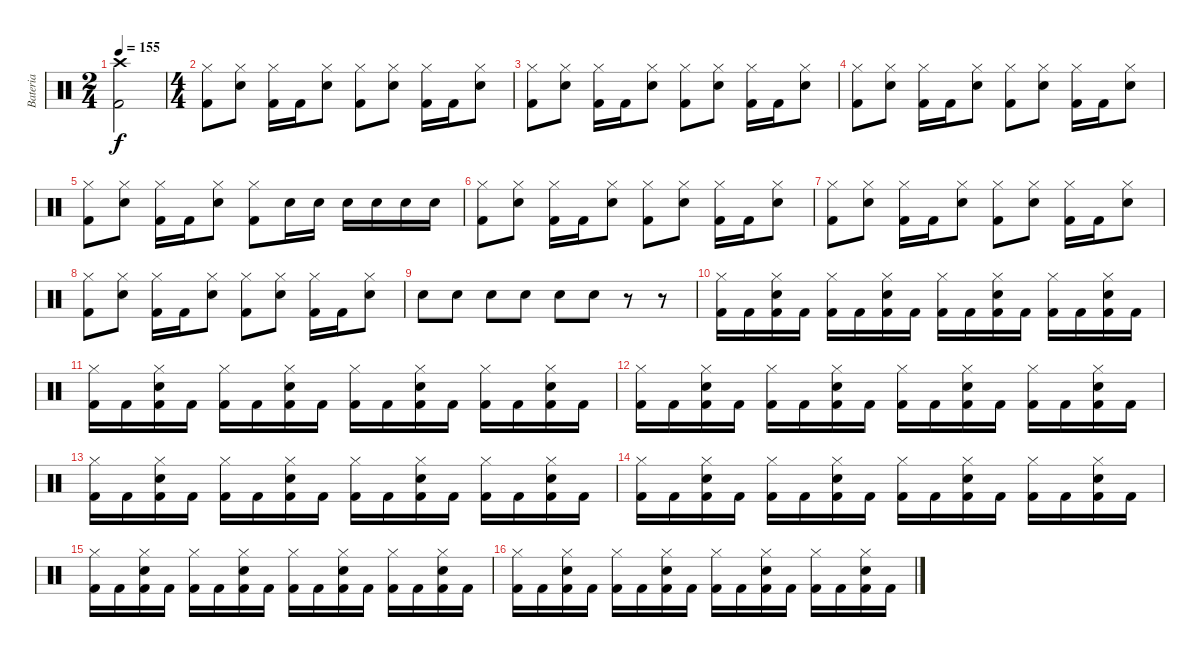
\track ("Bateria" "Bateria") {instrument percussion}
\staff {score}
\articulation defaults
\ts (2 4)
\tempo 155
\clef neutral
\ks c
("Kick (hit) 2" "Crash high (hit)").2{dy f} |
\ts (4 4)
("Kick (hit) 2" "Hi-Hat (closed)").8 ("Electric Snare (hit)" "Hi-Hat (closed)").8 ("Kick (hit) 2" "Hi-Hat (closed)").16 "Kick (hit) 2".16 ("Electric Snare (hit)" "Hi-Hat (closed)").8 ("Kick (hit) 2" "Hi-Hat (closed)").8 ("Electric Snare (hit)" "Hi-Hat (closed)").8 ("Kick (hit) 2" "Hi-Hat (closed)").16 "Kick (hit) 2".16 ("Electric Snare (hit)" "Hi-Hat (closed)").8 |
("Kick (hit) 2" "Hi-Hat (closed)").8 ("Electric Snare (hit)" "Hi-Hat (closed)").8 ("Kick (hit) 2" "Hi-Hat (closed)").16 "Kick (hit) 2".16 ("Electric Snare (hit)" "Hi-Hat (closed)").8 ("Kick (hit) 2" "Hi-Hat (closed)").8 ("Electric Snare (hit)" "Hi-Hat (closed)").8 ("Kick (hit) 2" "Hi-Hat (closed)").16 "Kick (hit) 2".16 ("Electric Snare (hit)" "Hi-Hat (closed)").8 |
("Kick (hit) 2" "Hi-Hat (closed)").8 ("Electric Snare (hit)" "Hi-Hat (closed)").8 ("Kick (hit) 2" "Hi-Hat (closed)").16 "Kick (hit) 2".16 ("Electric Snare (hit)" "Hi-Hat (closed)").8 ("Kick (hit) 2" "Hi-Hat (closed)").8 ("Electric Snare (hit)" "Hi-Hat (closed)").8 ("Kick (hit) 2" "Hi-Hat (closed)").16 "Kick (hit) 2".16 ("Electric Snare (hit)" "Hi-Hat (closed)").8 |
("Kick (hit) 2" "Hi-Hat (closed)").8 ("Electric Snare (hit)" "Hi-Hat (closed)").8 ("Kick (hit) 2" "Hi-Hat (closed)").16 "Kick (hit) 2".16 ("Electric Snare (hit)" "Hi-Hat (closed)").8 ("Kick (hit) 2" "Hi-Hat (closed)").8 "Electric Snare (hit)".16 "Electric Snare (hit)".16 "Electric Snare (hit)".16 "Electric Snare (hit)".16 "Electric Snare (hit)".16 "Electric Snare (hit)".16 |
("Kick (hit) 2" "Hi-Hat (closed)").8 ("Electric Snare (hit)" "Hi-Hat (closed)").8 ("Kick (hit) 2" "Hi-Hat (closed)").16 "Kick (hit) 2".16 ("Electric Snare (hit)" "Hi-Hat (closed)").8 ("Kick (hit) 2" "Hi-Hat (closed)").8 ("Electric Snare (hit)" "Hi-Hat (closed)").8 ("Kick (hit) 2" "Hi-Hat (closed)").16 "Kick (hit) 2".16 ("Electric Snare (hit)" "Hi-Hat (closed)").8 |
("Kick (hit) 2" "Hi-Hat (closed)").8 ("Electric Snare (hit)" "Hi-Hat (closed)").8 ("Kick (hit) 2" "Hi-Hat (closed)").16 "Kick (hit) 2".16 ("Electric Snare (hit)" "Hi-Hat (closed)").8 ("Kick (hit) 2" "Hi-Hat (closed)").8 ("Electric Snare (hit)" "Hi-Hat (closed)").8 ("Kick (hit) 2" "Hi-Hat (closed)").16 "Kick (hit) 2".16 ("Electric Snare (hit)" "Hi-Hat (closed)").8 |
("Kick (hit) 2" "Hi-Hat (closed)").8 ("Electric Snare (hit)" "Hi-Hat (closed)").8 ("Kick (hit) 2" "Hi-Hat (closed)").16 "Kick (hit) 2".16 ("Electric Snare (hit)" "Hi-Hat (closed)").8 ("Kick (hit) 2" "Hi-Hat (closed)").8 ("Electric Snare (hit)" "Hi-Hat (closed)").8 ("Kick (hit) 2" "Hi-Hat (closed)").16 "Kick (hit) 2".16 ("Electric Snare (hit)" "Hi-Hat (closed)").8 |
"Electric Snare (hit)".8 "Electric Snare (hit)".8 "Electric Snare (hit)".8 "Electric Snare (hit)".8 "Electric Snare (hit)".8 "Electric Snare (hit)".8 r.8 r.8 |
("Kick (hit) 2" "Hi-Hat (closed)").16 "Kick (hit) 2".16 ("Kick (hit) 2" "Hi-Hat (closed)" "Electric Snare (hit)").16 "Kick (hit) 2".16 ("Kick (hit) 2" "Hi-Hat (closed)").16 "Kick (hit) 2".16 ("Kick (hit) 2" "Hi-Hat (closed)" "Electric Snare (hit)").16 "Kick (hit) 2".16 ("Kick (hit) 2" "Hi-Hat (closed)").16 "Kick (hit) 2".16 ("Kick (hit) 2" "Hi-Hat (closed)" "Electric Snare (hit)").16 "Kick (hit) 2".16 ("Kick (hit) 2" "Hi-Hat (closed)").16 "Kick (hit) 2".16 ("Kick (hit) 2" "Hi-Hat (closed)" "Electric Snare (hit)").16 "Kick (hit) 2".16 |
("Kick (hit) 2" "Hi-Hat (closed)").16 "Kick (hit) 2".16 ("Kick (hit) 2" "Hi-Hat (closed)" "Electric Snare (hit)").16 "Kick (hit) 2".16 ("Kick (hit) 2" "Hi-Hat (closed)").16 "Kick (hit) 2".16 ("Kick (hit) 2" "Hi-Hat (closed)" "Electric Snare (hit)").16 "Kick (hit) 2".16 ("Kick (hit) 2" "Hi-Hat (closed)").16 "Kick (hit) 2".16 ("Kick (hit) 2" "Hi-Hat (closed)" "Electric Snare (hit)").16 "Kick (hit) 2".16 ("Kick (hit) 2" "Hi-Hat (closed)").16 "Kick (hit) 2".16 ("Kick (hit) 2" "Hi-Hat (closed)" "Electric Snare (hit)").16 "Kick (hit) 2".16 |
("Kick (hit) 2" "Hi-Hat (closed)").16 "Kick (hit) 2".16 ("Kick (hit) 2" "Hi-Hat (closed)" "Electric Snare (hit)").16 "Kick (hit) 2".16 ("Kick (hit) 2" "Hi-Hat (closed)").16 "Kick (hit) 2".16 ("Kick (hit) 2" "Hi-Hat (closed)" "Electric Snare (hit)").16 "Kick (hit) 2".16 ("Kick (hit) 2" "Hi-Hat (closed)").16 "Kick (hit) 2".16 ("Kick (hit) 2" "Hi-Hat (closed)" "Electric Snare (hit)").16 "Kick (hit) 2".16 ("Kick (hit) 2" "Hi-Hat (closed)").16 "Kick (hit) 2".16 ("Kick (hit) 2" "Hi-Hat (closed)" "Electric Snare (hit)").16 "Kick (hit) 2".16 |
("Kick (hit) 2" "Hi-Hat (closed)").16 "Kick (hit) 2".16 ("Kick (hit) 2" "Hi-Hat (closed)" "Electric Snare (hit)").16 "Kick (hit) 2".16 ("Kick (hit) 2" "Hi-Hat (closed)").16 "Kick (hit) 2".16 ("Kick (hit) 2" "Hi-Hat (closed)" "Electric Snare (hit)").16 "Kick (hit) 2".16 ("Kick (hit) 2" "Hi-Hat (closed)").16 "Kick (hit) 2".16 ("Kick (hit) 2" "Hi-Hat (closed)" "Electric Snare (hit)").16 "Kick (hit) 2".16 ("Kick (hit) 2" "Hi-Hat (closed)").16 "Kick (hit) 2".16 ("Kick (hit) 2" "Hi-Hat (closed)" "Electric Snare (hit)").16 "Kick (hit) 2".16 |
("Kick (hit) 2" "Hi-Hat (closed)").16 "Kick (hit) 2".16 ("Kick (hit) 2" "Hi-Hat (closed)" "Electric Snare (hit)").16 "Kick (hit) 2".16 ("Kick (hit) 2" "Hi-Hat (closed)").16 "Kick (hit) 2".16 ("Kick (hit) 2" "Hi-Hat (closed)" "Electric Snare (hit)").16 "Kick (hit) 2".16 ("Kick (hit) 2" "Hi-Hat (closed)").16 "Kick (hit) 2".16 ("Kick (hit) 2" "Hi-Hat (closed)" "Electric Snare (hit)").16 "Kick (hit) 2".16 ("Kick (hit) 2" "Hi-Hat (closed)").16 "Kick (hit) 2".16 ("Kick (hit) 2" "Hi-Hat (closed)" "Electric Snare (hit)").16 "Kick (hit) 2".16 |
("Kick (hit) 2" "Hi-Hat (closed)").16 "Kick (hit) 2".16 ("Kick (hit) 2" "Hi-Hat (closed)" "Electric Snare (hit)").16 "Kick (hit) 2".16 ("Kick (hit) 2" "Hi-Hat (closed)").16 "Kick (hit) 2".16 ("Kick (hit) 2" "Hi-Hat (closed)" "Electric Snare (hit)").16 "Kick (hit) 2".16 ("Kick (hit) 2" "Hi-Hat (closed)").16 "Kick (hit) 2".16 ("Kick (hit) 2" "Hi-Hat (closed)" "Electric Snare (hit)").16 "Kick (hit) 2".16 ("Kick (hit) 2" "Hi-Hat (closed)").16 "Kick (hit) 2".16 ("Kick (hit) 2" "Hi-Hat (closed)" "Electric Snare (hit)").16 "Kick (hit) 2".16 |
("Kick (hit) 2" "Hi-Hat (closed)").16 "Kick (hit) 2".16 ("Kick (hit) 2" "Hi-Hat (closed)" "Electric Snare (hit)").16 "Kick (hit) 2".16 ("Kick (hit) 2" "Hi-Hat (closed)").16 "Kick (hit) 2".16 ("Kick (hit) 2" "Hi-Hat (closed)" "Electric Snare (hit)").16 "Kick (hit) 2".16 ("Kick (hit) 2" "Hi-Hat (closed)").16 "Kick (hit) 2".16 ("Kick (hit) 2" "Hi-Hat (closed)" "Electric Snare (hit)").16 "Kick (hit) 2".16 ("Kick (hit) 2" "Hi-Hat (closed)").16 "Kick (hit) 2".16 ("Kick (hit) 2" "Hi-Hat (closed)" "Electric Snare (hit)").16 "Kick (hit) 2".16
